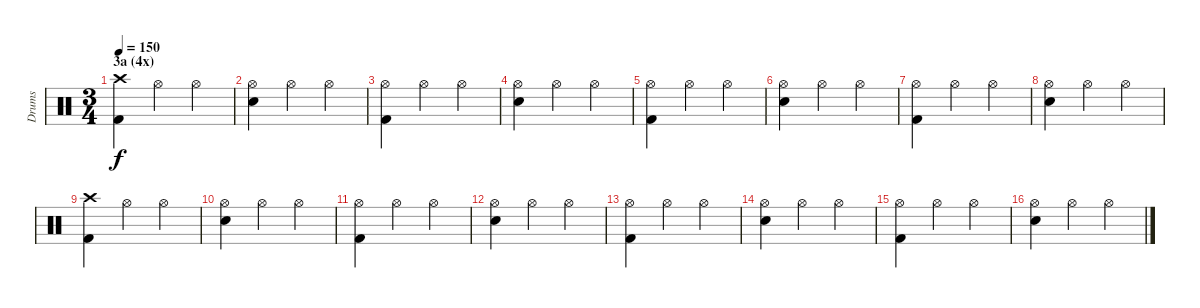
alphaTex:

\track ("Drums" "Drums") {instrument percussion}
\staff {score}
\articulation defaults
\ts (3 4)
\section ("" "3a (4x)")
\tempo 150
\clef neutral
\ks c
("Crash high (hit)" "Kick (hit) 2").4{dy f} "Hi-Hat (open)".4 "Hi-Hat (open)".4 |
("Hi-Hat (open)" "Snare (hit) 2").4 "Hi-Hat (open)".4 "Hi-Hat (open)".4 |
("Hi-Hat (open)" "Kick (hit) 2").4 "Hi-Hat (open)".4 "Hi-Hat (open)".4 |
("Hi-Hat (open)" "Snare (hit) 2").4 "Hi-Hat (open)".4 "Hi-Hat (open)".4 |
("Hi-Hat (open)" "Kick (hit) 2").4 "Hi-Hat (open)".4 "Hi-Hat (open)".4 |
("Hi-Hat (open)" "Snare (hit) 2").4 "Hi-Hat (open)".4 "Hi-Hat (open)".4 |
("Hi-Hat (open)" "Kick (hit) 2").4 "Hi-Hat (open)".4 "Hi-Hat (open)".4 |
("Hi-Hat (open)" "Snare (hit) 2").4 "Hi-Hat (open)".4 "Hi-Hat (open)".4 |
("Crash high (hit)" "Kick (hit) 2").4 "Hi-Hat (open)".4 "Hi-Hat (open)".4 |
("Hi-Hat (open)" "Snare (hit) 2").4 "Hi-Hat (open)".4 "Hi-Hat (open)".4 |
("Hi-Hat (open)" "Kick (hit) 2").4 "Hi-Hat (open)".4 "Hi-Hat (open)".4 |
("Hi-Hat (open)" "Snare (hit) 2").4 "Hi-Hat (open)".4 "Hi-Hat (open)".4 |
("Hi-Hat (open)" "Kick (hit) 2").4 "Hi-Hat (open)".4 "Hi-Hat (open)".4 |
("Hi-Hat (open)" "Snare (hit) 2").4 "Hi-Hat (open)".4 "Hi-Hat (open)".4 |
("Hi-Hat (open)" "Kick (hit) 2").4 "Hi-Hat (open)".4 "Hi-Hat (open)".4 |
("Hi-Hat (open)" "Snare (hit) 2").4 "Hi-Hat (open)".4 "Hi-Hat (open)".4
